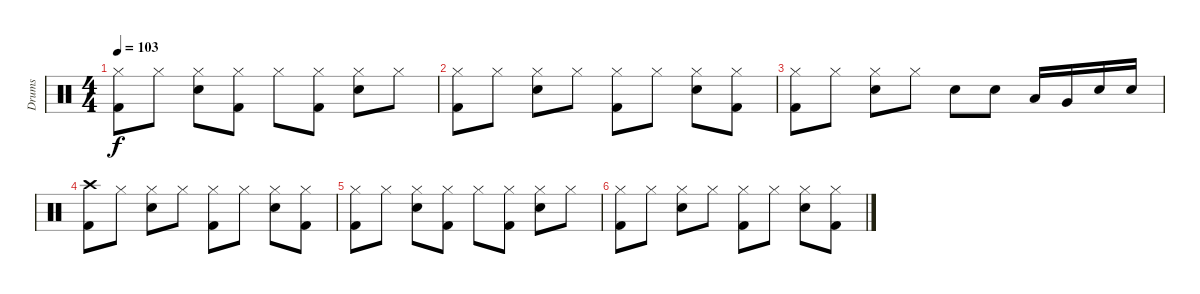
\track ("Drums" "Drums") {instrument percussion}
\staff {score}
\articulation defaults
\ts (4 4)
\tempo 103
\clef neutral
\ks c
("Hi-Hat (closed)" "Kick (hit) 2").8{dy f} "Hi-Hat (closed)".8 ("Hi-Hat (closed)" "Snare (hit) 2").8 ("Hi-Hat (closed)" "Kick (hit) 2").8 "Hi-Hat (closed)".8 ("Hi-Hat (closed)" "Kick (hit) 2").8 ("Hi-Hat (closed)" "Snare (hit) 2").8 "Hi-Hat (closed)".8 |
("Hi-Hat (closed)" "Kick (hit) 2").8 "Hi-Hat (closed)".8 ("Hi-Hat (closed)" "Snare (hit) 2").8 "Hi-Hat (closed)".8 ("Hi-Hat (closed)" "Kick (hit) 2").8 "Hi-Hat (closed)".8 ("Hi-Hat (closed)" "Snare (hit) 2").8 ("Hi-Hat (closed)" "Kick (hit) 2").8 |
("Hi-Hat (closed)" "Kick (hit) 2").8 "Hi-Hat (closed)".8 ("Hi-Hat (closed)" "Snare (hit) 2").8 "Hi-Hat (closed)".8 "Snare (hit) 2".8 "Snare (hit) 2".8 "Low Tom (hit)".16 "Very Low Tom (hit)".16 "Snare (hit) 2".16 "Snare (hit) 2".16 |
("Crash high (hit)" "Kick (hit) 2").8 "Hi-Hat (closed)".8 ("Hi-Hat (closed)" "Snare (hit) 2").8 "Hi-Hat (closed)".8 ("Hi-Hat (closed)" "Kick (hit) 2").8 "Hi-Hat (closed)".8 ("Hi-Hat (closed)" "Snare (hit) 2").8 ("Hi-Hat (closed)" "Kick (hit) 2").8 |
("Hi-Hat (closed)" "Kick (hit) 2").8 "Hi-Hat (closed)".8 ("Hi-Hat (closed)" "Snare (hit) 2").8 ("Hi-Hat (closed)" "Kick (hit) 2").8 "Hi-Hat (closed)".8 ("Hi-Hat (closed)" "Kick (hit) 2").8 ("Hi-Hat (closed)" "Snare (hit) 2").8 "Hi-Hat (closed)".8 |
("Hi-Hat (closed)" "Kick (hit) 2").8 "Hi-Hat (closed)".8 ("Hi-Hat (closed)" "Snare (hit) 2").8 "Hi-Hat (closed)".8 ("Hi-Hat (closed)" "Kick (hit) 2").8 "Hi-Hat (closed)".8 ("Hi-Hat (closed)" "Snare (hit) 2").8 ("Hi-Hat (closed)" "Kick (hit) 2").8
